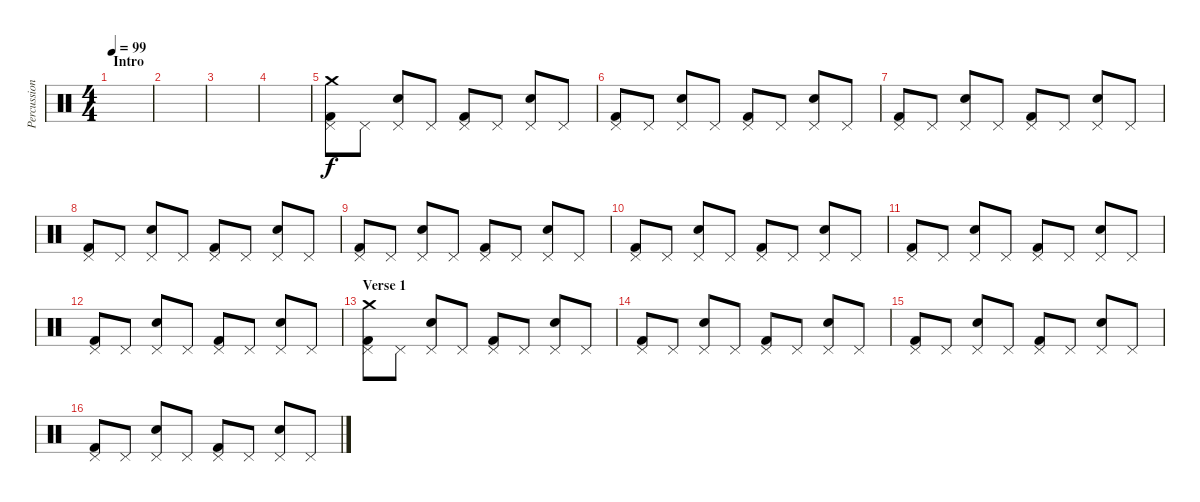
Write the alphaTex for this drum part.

\track ("Percussion" "Percussion") {instrument percussion}
\staff {score}
\articulation defaults
\ts (4 4)
\section ("" "Intro")
\tempo 99
\clef neutral
\ks c
|
|
|
|
("Crash medium (hit)" "Pedal Hi-Hat (hit)" "Kick (hit) 2").8 "Pedal Hi-Hat (hit)".8 ("Pedal Hi-Hat (hit)" "Electric Snare (hit)").8 "Pedal Hi-Hat (hit)".8 ("Pedal Hi-Hat (hit)" "Kick (hit) 2").8 "Pedal Hi-Hat (hit)".8 ("Pedal Hi-Hat (hit)" "Electric Snare (hit)").8 "Pedal Hi-Hat (hit)".8 |
("Pedal Hi-Hat (hit)" "Kick (hit) 2").8 "Pedal Hi-Hat (hit)".8 ("Pedal Hi-Hat (hit)" "Electric Snare (hit)").8 "Pedal Hi-Hat (hit)".8 ("Pedal Hi-Hat (hit)" "Kick (hit) 2").8 "Pedal Hi-Hat (hit)".8 ("Pedal Hi-Hat (hit)" "Electric Snare (hit)").8 "Pedal Hi-Hat (hit)".8 |
("Pedal Hi-Hat (hit)" "Kick (hit) 2").8 "Pedal Hi-Hat (hit)".8 ("Pedal Hi-Hat (hit)" "Electric Snare (hit)").8 "Pedal Hi-Hat (hit)".8 ("Pedal Hi-Hat (hit)" "Kick (hit) 2").8 "Pedal Hi-Hat (hit)".8 ("Pedal Hi-Hat (hit)" "Electric Snare (hit)").8 "Pedal Hi-Hat (hit)".8 |
("Pedal Hi-Hat (hit)" "Kick (hit) 2").8 "Pedal Hi-Hat (hit)".8 ("Pedal Hi-Hat (hit)" "Electric Snare (hit)").8 "Pedal Hi-Hat (hit)".8 ("Pedal Hi-Hat (hit)" "Kick (hit) 2").8 "Pedal Hi-Hat (hit)".8 ("Pedal Hi-Hat (hit)" "Electric Snare (hit)").8 "Pedal Hi-Hat (hit)".8 |
("Pedal Hi-Hat (hit)" "Kick (hit) 2").8 "Pedal Hi-Hat (hit)".8 ("Pedal Hi-Hat (hit)" "Electric Snare (hit)").8 "Pedal Hi-Hat (hit)".8 ("Pedal Hi-Hat (hit)" "Kick (hit) 2").8 "Pedal Hi-Hat (hit)".8 ("Pedal Hi-Hat (hit)" "Electric Snare (hit)").8 "Pedal Hi-Hat (hit)".8 |
("Pedal Hi-Hat (hit)" "Kick (hit) 2").8 "Pedal Hi-Hat (hit)".8 ("Pedal Hi-Hat (hit)" "Electric Snare (hit)").8 "Pedal Hi-Hat (hit)".8 ("Pedal Hi-Hat (hit)" "Kick (hit) 2").8 "Pedal Hi-Hat (hit)".8 ("Pedal Hi-Hat (hit)" "Electric Snare (hit)").8 "Pedal Hi-Hat (hit)".8 |
("Pedal Hi-Hat (hit)" "Kick (hit) 2").8 "Pedal Hi-Hat (hit)".8 ("Pedal Hi-Hat (hit)" "Electric Snare (hit)").8 "Pedal Hi-Hat (hit)".8 ("Pedal Hi-Hat (hit)" "Kick (hit) 2").8 "Pedal Hi-Hat (hit)".8 ("Pedal Hi-Hat (hit)" "Electric Snare (hit)").8 "Pedal Hi-Hat (hit)".8 |
("Pedal Hi-Hat (hit)" "Kick (hit) 2").8 "Pedal Hi-Hat (hit)".8 ("Pedal Hi-Hat (hit)" "Electric Snare (hit)").8 "Pedal Hi-Hat (hit)".8 ("Pedal Hi-Hat (hit)" "Kick (hit) 2").8 "Pedal Hi-Hat (hit)".8 ("Pedal Hi-Hat (hit)" "Electric Snare (hit)").8 "Pedal Hi-Hat (hit)".8 |
\section ("" "Verse 1")
("Crash medium (hit)" "Pedal Hi-Hat (hit)" "Kick (hit) 2").8 "Pedal Hi-Hat (hit)".8 ("Pedal Hi-Hat (hit)" "Electric Snare (hit)").8 "Pedal Hi-Hat (hit)".8 ("Pedal Hi-Hat (hit)" "Kick (hit) 2").8 "Pedal Hi-Hat (hit)".8 ("Pedal Hi-Hat (hit)" "Electric Snare (hit)").8 "Pedal Hi-Hat (hit)".8 |
("Pedal Hi-Hat (hit)" "Kick (hit) 2").8 "Pedal Hi-Hat (hit)".8 ("Pedal Hi-Hat (hit)" "Electric Snare (hit)").8 "Pedal Hi-Hat (hit)".8 ("Pedal Hi-Hat (hit)" "Kick (hit) 2").8 "Pedal Hi-Hat (hit)".8 ("Pedal Hi-Hat (hit)" "Electric Snare (hit)").8 "Pedal Hi-Hat (hit)".8 |
("Pedal Hi-Hat (hit)" "Kick (hit) 2").8 "Pedal Hi-Hat (hit)".8 ("Pedal Hi-Hat (hit)" "Electric Snare (hit)").8 "Pedal Hi-Hat (hit)".8 ("Pedal Hi-Hat (hit)" "Kick (hit) 2").8 "Pedal Hi-Hat (hit)".8 ("Pedal Hi-Hat (hit)" "Electric Snare (hit)").8 "Pedal Hi-Hat (hit)".8 |
("Pedal Hi-Hat (hit)" "Kick (hit) 2").8 "Pedal Hi-Hat (hit)".8 ("Pedal Hi-Hat (hit)" "Electric Snare (hit)").8 "Pedal Hi-Hat (hit)".8 ("Pedal Hi-Hat (hit)" "Kick (hit) 2").8 "Pedal Hi-Hat (hit)".8 ("Pedal Hi-Hat (hit)" "Electric Snare (hit)").8 "Pedal Hi-Hat (hit)".8
